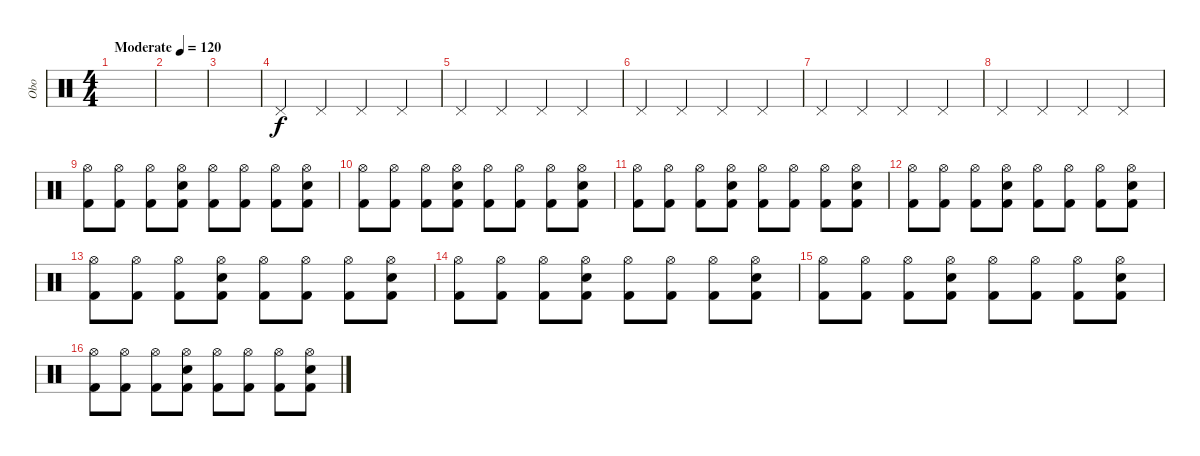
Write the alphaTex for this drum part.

\track ("Obo" "Obo") {instrument percussion}
\staff {score}
\articulation defaults
\ts (4 4)
\tempo (120 "Moderate")
\clef neutral
\ks c
|
|
|
"Pedal Hi-Hat (hit)".4 "Pedal Hi-Hat (hit)".4 "Pedal Hi-Hat (hit)".4 "Pedal Hi-Hat (hit)".4 |
"Pedal Hi-Hat (hit)".4 "Pedal Hi-Hat (hit)".4 "Pedal Hi-Hat (hit)".4 "Pedal Hi-Hat (hit)".4 |
"Pedal Hi-Hat (hit)".4 "Pedal Hi-Hat (hit)".4 "Pedal Hi-Hat (hit)".4 "Pedal Hi-Hat (hit)".4 |
"Pedal Hi-Hat (hit)".4 "Pedal Hi-Hat (hit)".4 "Pedal Hi-Hat (hit)".4 "Pedal Hi-Hat (hit)".4 |
"Pedal Hi-Hat (hit)".4 "Pedal Hi-Hat (hit)".4 "Pedal Hi-Hat (hit)".4 "Pedal Hi-Hat (hit)".4 |
("Kick (hit) 2" "Hi-Hat (open)").8 ("Kick (hit) 2" "Hi-Hat (open)").8 ("Kick (hit) 2" "Hi-Hat (open)").8 ("Snare (hit) 2" "Kick (hit) 2" "Hi-Hat (open)").8 ("Kick (hit) 2" "Hi-Hat (open)").8 ("Kick (hit) 2" "Hi-Hat (open)").8 ("Kick (hit) 2" "Hi-Hat (open)").8 ("Snare (hit) 2" "Kick (hit) 2" "Hi-Hat (open)").8 |
("Kick (hit) 2" "Hi-Hat (open)").8 ("Kick (hit) 2" "Hi-Hat (open)").8 ("Kick (hit) 2" "Hi-Hat (open)").8 ("Snare (hit) 2" "Kick (hit) 2" "Hi-Hat (open)").8 ("Kick (hit) 2" "Hi-Hat (open)").8 ("Kick (hit) 2" "Hi-Hat (open)").8 ("Kick (hit) 2" "Hi-Hat (open)").8 ("Snare (hit) 2" "Kick (hit) 2" "Hi-Hat (open)").8 |
("Kick (hit) 2" "Hi-Hat (open)").8 ("Kick (hit) 2" "Hi-Hat (open)").8 ("Kick (hit) 2" "Hi-Hat (open)").8 ("Snare (hit) 2" "Kick (hit) 2" "Hi-Hat (open)").8 ("Kick (hit) 2" "Hi-Hat (open)").8 ("Kick (hit) 2" "Hi-Hat (open)").8 ("Kick (hit) 2" "Hi-Hat (open)").8 ("Snare (hit) 2" "Kick (hit) 2" "Hi-Hat (open)").8 |
("Kick (hit) 2" "Hi-Hat (open)").8 ("Kick (hit) 2" "Hi-Hat (open)").8 ("Kick (hit) 2" "Hi-Hat (open)").8 ("Snare (hit) 2" "Kick (hit) 2" "Hi-Hat (open)").8 ("Kick (hit) 2" "Hi-Hat (open)").8 ("Kick (hit) 2" "Hi-Hat (open)").8 ("Kick (hit) 2" "Hi-Hat (open)").8 ("Snare (hit) 2" "Kick (hit) 2" "Hi-Hat (open)").8 |
("Kick (hit) 2" "Hi-Hat (open)").8 ("Kick (hit) 2" "Hi-Hat (open)").8 ("Kick (hit) 2" "Hi-Hat (open)").8 ("Snare (hit) 2" "Kick (hit) 2" "Hi-Hat (open)").8 ("Kick (hit) 2" "Hi-Hat (open)").8 ("Kick (hit) 2" "Hi-Hat (open)").8 ("Kick (hit) 2" "Hi-Hat (open)").8 ("Snare (hit) 2" "Kick (hit) 2" "Hi-Hat (open)").8 |
("Kick (hit) 2" "Hi-Hat (open)").8 ("Kick (hit) 2" "Hi-Hat (open)").8 ("Kick (hit) 2" "Hi-Hat (open)").8 ("Snare (hit) 2" "Kick (hit) 2" "Hi-Hat (open)").8 ("Kick (hit) 2" "Hi-Hat (open)").8 ("Kick (hit) 2" "Hi-Hat (open)").8 ("Kick (hit) 2" "Hi-Hat (open)").8 ("Snare (hit) 2" "Kick (hit) 2" "Hi-Hat (open)").8 |
("Kick (hit) 2" "Hi-Hat (open)").8 ("Kick (hit) 2" "Hi-Hat (open)").8 ("Kick (hit) 2" "Hi-Hat (open)").8 ("Snare (hit) 2" "Kick (hit) 2" "Hi-Hat (open)").8 ("Kick (hit) 2" "Hi-Hat (open)").8 ("Kick (hit) 2" "Hi-Hat (open)").8 ("Kick (hit) 2" "Hi-Hat (open)").8 ("Snare (hit) 2" "Kick (hit) 2" "Hi-Hat (open)").8 |
("Kick (hit) 2" "Hi-Hat (open)").8 ("Kick (hit) 2" "Hi-Hat (open)").8 ("Kick (hit) 2" "Hi-Hat (open)").8 ("Snare (hit) 2" "Kick (hit) 2" "Hi-Hat (open)").8 ("Kick (hit) 2" "Hi-Hat (open)").8 ("Kick (hit) 2" "Hi-Hat (open)").8 ("Kick (hit) 2" "Hi-Hat (open)").8 ("Snare (hit) 2" "Kick (hit) 2" "Hi-Hat (open)").8
